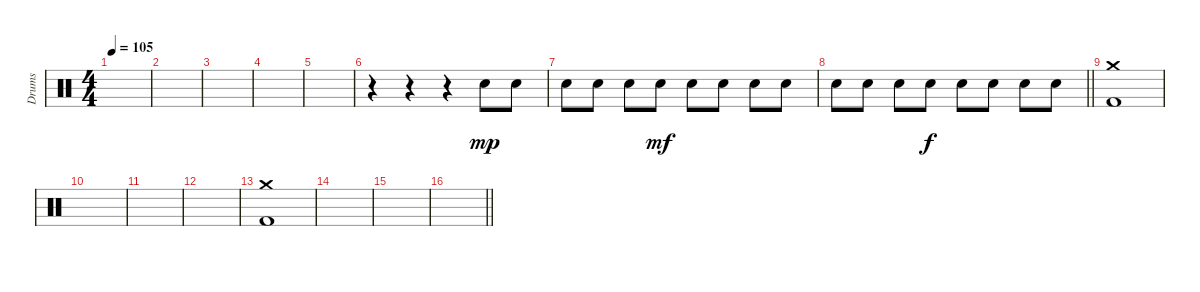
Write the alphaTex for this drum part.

\track ("Drums" "Drums") {instrument percussion}
\staff {score}
\articulation defaults
\ts (4 4)
\tempo 105
\clef neutral
\ks c
|
|
|
|
|
r.4 r.4 r.4 "Electric Snare (hit)".8{dy mp} "Electric Snare (hit)".8 |
"Electric Snare (hit)".8 "Electric Snare (hit)".8 "Electric Snare (hit)".8 "Electric Snare (hit)".8{dy mf} "Electric Snare (hit)".8 "Electric Snare (hit)".8 "Electric Snare (hit)".8 "Electric Snare (hit)".8 |
\barLineRight lightlight "Electric Snare (hit)".8 "Electric Snare (hit)".8 "Electric Snare (hit)".8 "Electric Snare (hit)".8{dy f} "Electric Snare (hit)".8 "Electric Snare (hit)".8 "Electric Snare (hit)".8 "Electric Snare (hit)".8
|
("Crash medium (hit)" "Kick (hit) 2").1 |
|
|
|
("Crash medium (hit)" "Kick (hit) 2").1 |
|
|
\barLineRight lightlight
